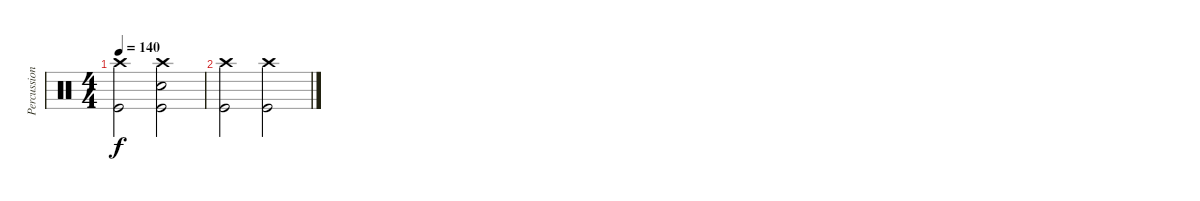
\track ("Percussion" "Percussion") {instrument percussion}
\staff {score}
\articulation defaults
\ts (4 4)
\tempo 140
\clef neutral
\ks c
("Crash high (hit)" "Kick (hit)").2{dy f} ("Crash high (hit)" "Snare (hit) 2" "Kick (hit)").2 |
("Crash high (hit)" "Kick (hit)").2 ("Crash high (hit)" "Kick (hit)").2
